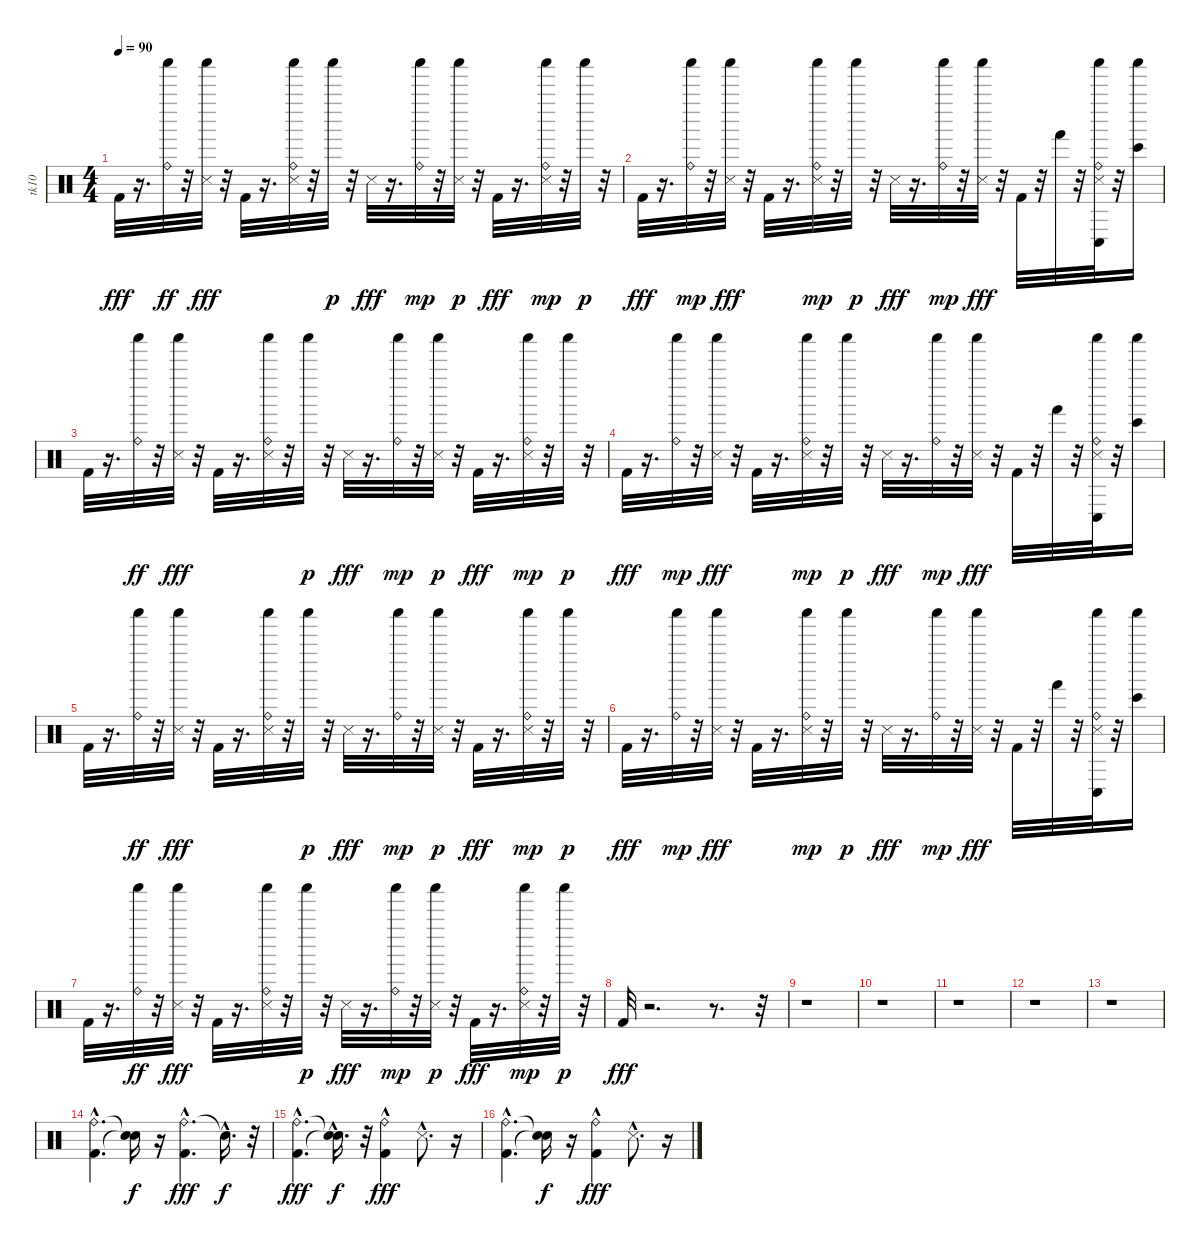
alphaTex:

\track ("tk10" "tk10") {instrument percussion}
\staff {score}
\articulation defaults
\ts (4 4)
\tempo 90
\clef neutral
\ks c "Kick (hit) 2".32{dy fff}
r.16{d} ("Shaker (hit)" "Ride (bell)").32{dy ff} r.32 ("Shaker (hit)" "Snare (side stick) 3").32{dy fff} r.32 "Kick (hit) 2".32 r.16{d} ("Shaker (hit)" "Ride (bell)" "Snare (side stick) 3").32 r.32 "Shaker (hit)".32{dy p} r.32 "Snare (side stick) 3".32{dy fff} r.16{d} ("Ride (bell)" "Shaker (hit)").32{dy mp} r.32 ("Snare (side stick) 3" "Shaker (hit)").32{dy p} r.32 "Kick (hit) 2".32{dy fff} r.16{d} ("Ride (bell)" "Snare (side stick) 3" "Shaker (hit)").32{dy mp} r.32 "Shaker (hit)".32{dy p} r.32 |
"Kick (hit) 2".32{dy fff} r.16{d} ("Ride (bell)" "Shaker (hit)").32{dy mp} r.32 ("Shaker (hit)" "Snare (side stick) 3").32{dy fff} r.32 "Kick (hit) 2".32 r.16{d} ("Ride (bell)" "Snare (side stick) 3" "Shaker (hit)").32{dy mp} r.32 "Shaker (hit)".32{dy p} r.32 "Snare (side stick) 3".32{dy fff} r.16{d} ("Ride (bell)" "Shaker (hit)").32{dy mp} r.32 ("Shaker (hit)" "Snare (side stick) 3").32{dy fff} r.32 "Kick (hit) 2".32 r.32 "Hand (hit)".32 r.32 ("Shaker (hit)" "Ride (bell)" "Snare (side stick) 3" "Conga low (hit)").32 r.32 ("Shaker (hit)" "Bongo High (hit)").16 |
"Kick (hit) 2".32 r.16{d} ("Shaker (hit)" "Ride (bell)").32{dy ff} r.32 ("Shaker (hit)" "Snare (side stick) 3").32{dy fff} r.32 "Kick (hit) 2".32 r.16{d} ("Shaker (hit)" "Ride (bell)" "Snare (side stick) 3").32 r.32 "Shaker (hit)".32{dy p} r.32 "Snare (side stick) 3".32{dy fff} r.16{d} ("Ride (bell)" "Shaker (hit)").32{dy mp} r.32 ("Snare (side stick) 3" "Shaker (hit)").32{dy p} r.32 "Kick (hit) 2".32{dy fff} r.16{d} ("Ride (bell)" "Snare (side stick) 3" "Shaker (hit)").32{dy mp} r.32 "Shaker (hit)".32{dy p} r.32 |
"Kick (hit) 2".32{dy fff} r.16{d} ("Ride (bell)" "Shaker (hit)").32{dy mp} r.32 ("Shaker (hit)" "Snare (side stick) 3").32{dy fff} r.32 "Kick (hit) 2".32 r.16{d} ("Ride (bell)" "Snare (side stick) 3" "Shaker (hit)").32{dy mp} r.32 "Shaker (hit)".32{dy p} r.32 "Snare (side stick) 3".32{dy fff} r.16{d} ("Ride (bell)" "Shaker (hit)").32{dy mp} r.32 ("Shaker (hit)" "Snare (side stick) 3").32{dy fff} r.32 "Kick (hit) 2".32 r.32 "Hand (hit)".32 r.32 ("Shaker (hit)" "Ride (bell)" "Snare (side stick) 3" "Conga low (hit)").32 r.32 ("Shaker (hit)" "Bongo High (hit)").16 |
"Kick (hit) 2".32 r.16{d} ("Shaker (hit)" "Ride (bell)").32{dy ff} r.32 ("Shaker (hit)" "Snare (side stick) 3").32{dy fff} r.32 "Kick (hit) 2".32 r.16{d} ("Shaker (hit)" "Ride (bell)" "Snare (side stick) 3").32 r.32 "Shaker (hit)".32{dy p} r.32 "Snare (side stick) 3".32{dy fff} r.16{d} ("Ride (bell)" "Shaker (hit)").32{dy mp} r.32 ("Snare (side stick) 3" "Shaker (hit)").32{dy p} r.32 "Kick (hit) 2".32{dy fff} r.16{d} ("Ride (bell)" "Snare (side stick) 3" "Shaker (hit)").32{dy mp} r.32 "Shaker (hit)".32{dy p} r.32 |
"Kick (hit) 2".32{dy fff} r.16{d} ("Ride (bell)" "Shaker (hit)").32{dy mp} r.32 ("Shaker (hit)" "Snare (side stick) 3").32{dy fff} r.32 "Kick (hit) 2".32 r.16{d} ("Ride (bell)" "Snare (side stick) 3" "Shaker (hit)").32{dy mp} r.32 "Shaker (hit)".32{dy p} r.32 "Snare (side stick) 3".32{dy fff} r.16{d} ("Ride (bell)" "Shaker (hit)").32{dy mp} r.32 ("Shaker (hit)" "Snare (side stick) 3").32{dy fff} r.32 "Kick (hit) 2".32 r.32 "Hand (hit)".32 r.32 ("Shaker (hit)" "Ride (bell)" "Snare (side stick) 3" "Conga low (hit)").32 r.32 ("Shaker (hit)" "Bongo High (hit)").16 |
"Kick (hit) 2".32 r.16{d} ("Shaker (hit)" "Ride (bell)").32{dy ff} r.32 ("Shaker (hit)" "Snare (side stick) 3").32{dy fff} r.32 "Kick (hit) 2".32 r.16{d} ("Shaker (hit)" "Ride (bell)" "Snare (side stick) 3").32 r.32 "Shaker (hit)".32{dy p} r.32 "Snare (side stick) 3".32{dy fff} r.16{d} ("Ride (bell)" "Shaker (hit)").32{dy mp} r.32 ("Snare (side stick) 3" "Shaker (hit)").32{dy p} r.32 "Kick (hit) 2".32{dy fff} r.16{d} ("Ride (bell)" "Snare (side stick) 3" "Shaker (hit)").32{dy mp} r.32 "Shaker (hit)".32{dy p} r.32 |
"Kick (hit) 2".32{dy fff} r.2{d} r.8{d} r.32 |
r.1 |
r.1 |
r.1 |
r.1 |
r.1 |
("Ride (bell)"{hac} "Kick (hit) 2"{hac}).4{d} ("Snare (hit)"{t} "Snare (hit)"{t}).16{dy f} r.16 ("Ride (bell)"{hac} "Kick (hit) 2").4{d dy fff} "Snare (hit)"{hac t}.16{d dy f} r.32 |
("Kick (hit) 2"{hac} "Ride (bell)"{hac}).4{d dy fff} ("Snare (hit)"{hac t} "Snare (hit)"{t}).16{d dy f} r.32 ("Ride (bell)"{hac} "Kick (hit) 2").4{dy fff} "Snare (side stick) 3"{hac}.8{d} r.16 |
("Ride (bell)"{hac} "Kick (hit) 2"{hac}).4{d} ("Snare (hit)"{t} "Snare (hit)"{t}).16{dy f} r.16 ("Ride (bell)"{hac} "Kick (hit) 2").4{dy fff} "Snare (side stick) 3"{hac}.8{d} r.16
